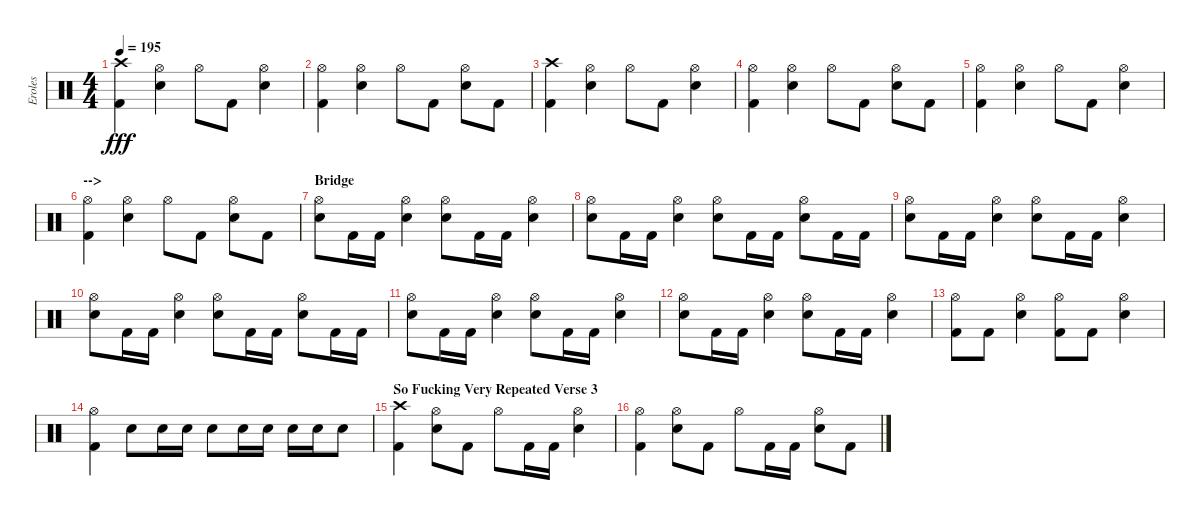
\track ("Eroles" "Eroles") {instrument percussion}
\staff {score}
\articulation defaults
\ts (4 4)
\tempo 195
\clef neutral
\ks c
("Crash high (hit)" "Kick (hit) 2").4{dy fff} ("Hi-Hat (open)" "Snare (hit) 2").4 "Hi-Hat (open)".8 "Kick (hit) 2".8 ("Hi-Hat (open)" "Snare (hit) 2").4 |
("Hi-Hat (open)" "Kick (hit) 2").4 ("Hi-Hat (open)" "Snare (hit) 2").4 "Hi-Hat (open)".8 "Kick (hit) 2".8 ("Hi-Hat (open)" "Snare (hit) 2").8 "Kick (hit) 2".8 |
("Crash high (hit)" "Kick (hit) 2").4 ("Hi-Hat (open)" "Snare (hit) 2").4 "Hi-Hat (open)".8 "Kick (hit) 2".8 ("Hi-Hat (open)" "Snare (hit) 2").4 |
("Hi-Hat (open)" "Kick (hit) 2").4 ("Hi-Hat (open)" "Snare (hit) 2").4 "Hi-Hat (open)".8 "Kick (hit) 2".8 ("Hi-Hat (open)" "Snare (hit) 2").8 "Kick (hit) 2".8 |
("Hi-Hat (open)" "Kick (hit) 2").4 ("Hi-Hat (open)" "Snare (hit) 2").4 "Hi-Hat (open)".8 "Kick (hit) 2".8 ("Hi-Hat (open)" "Snare (hit) 2").4 |
\section ("" "-->")
("Hi-Hat (open)" "Kick (hit) 2").4 ("Hi-Hat (open)" "Snare (hit) 2").4 "Hi-Hat (open)".8 "Kick (hit) 2".8 ("Hi-Hat (open)" "Snare (hit) 2").8 "Kick (hit) 2".8 |
\section ("" "Bridge")
("Hi-Hat (open)" "Snare (hit) 2").8 "Kick (hit) 2".16 "Kick (hit) 2".16 ("Hi-Hat (open)" "Snare (hit) 2").4 ("Hi-Hat (open)" "Snare (hit) 2").8 "Kick (hit) 2".16 "Kick (hit) 2".16 ("Hi-Hat (open)" "Snare (hit) 2").4 |
("Hi-Hat (open)" "Snare (hit) 2").8 "Kick (hit) 2".16 "Kick (hit) 2".16 ("Hi-Hat (open)" "Snare (hit) 2").4 ("Hi-Hat (open)" "Snare (hit) 2").8 "Kick (hit) 2".16 "Kick (hit) 2".16 ("Hi-Hat (open)" "Snare (hit) 2").8 "Kick (hit) 2".16 "Kick (hit) 2".16 |
("Hi-Hat (open)" "Snare (hit) 2").8 "Kick (hit) 2".16 "Kick (hit) 2".16 ("Hi-Hat (open)" "Snare (hit) 2").4 ("Hi-Hat (open)" "Snare (hit) 2").8 "Kick (hit) 2".16 "Kick (hit) 2".16 ("Hi-Hat (open)" "Snare (hit) 2").4 |
("Hi-Hat (open)" "Snare (hit) 2").8 "Kick (hit) 2".16 "Kick (hit) 2".16 ("Hi-Hat (open)" "Snare (hit) 2").4 ("Hi-Hat (open)" "Snare (hit) 2").8 "Kick (hit) 2".16 "Kick (hit) 2".16 ("Hi-Hat (open)" "Snare (hit) 2").8 "Kick (hit) 2".16 "Kick (hit) 2".16 |
("Hi-Hat (open)" "Snare (hit) 2").8 "Kick (hit) 2".16 "Kick (hit) 2".16 ("Hi-Hat (open)" "Snare (hit) 2").4 ("Hi-Hat (open)" "Snare (hit) 2").8 "Kick (hit) 2".16 "Kick (hit) 2".16 ("Hi-Hat (open)" "Snare (hit) 2").4 |
("Hi-Hat (open)" "Snare (hit) 2").8 "Kick (hit) 2".16 "Kick (hit) 2".16 ("Hi-Hat (open)" "Snare (hit) 2").4 ("Hi-Hat (open)" "Snare (hit) 2").8 "Kick (hit) 2".16 "Kick (hit) 2".16 ("Hi-Hat (open)" "Snare (hit) 2").4 |
("Hi-Hat (open)" "Kick (hit) 2").8 "Kick (hit) 2".8 ("Hi-Hat (open)" "Snare (hit) 2").4 ("Hi-Hat (open)" "Kick (hit) 2").8 "Kick (hit) 2".8 ("Hi-Hat (open)" "Snare (hit) 2").4 |
("Hi-Hat (open)" "Kick (hit) 2").4 "Snare (hit) 2".8 "Snare (hit) 2".16 "Snare (hit) 2".16 "Snare (hit) 2".8 "Snare (hit) 2".16 "Snare (hit) 2".16 "Snare (hit) 2".16 "Snare (hit) 2".16 "Snare (hit) 2".8 |
\section ("" "So Fucking Very Repeated Verse 3")
("Crash high (hit)" "Kick (hit) 2").4 ("Hi-Hat (open)" "Snare (hit) 2").8 "Kick (hit) 2".8 "Hi-Hat (open)".8 "Kick (hit) 2".16 "Kick (hit) 2".16 ("Hi-Hat (open)" "Snare (hit) 2").4 |
("Hi-Hat (open)" "Kick (hit) 2").4 ("Hi-Hat (open)" "Snare (hit) 2").8 "Kick (hit) 2".8 "Hi-Hat (open)".8 "Kick (hit) 2".16 "Kick (hit) 2".16 ("Hi-Hat (open)" "Snare (hit) 2").8 "Kick (hit) 2".8
